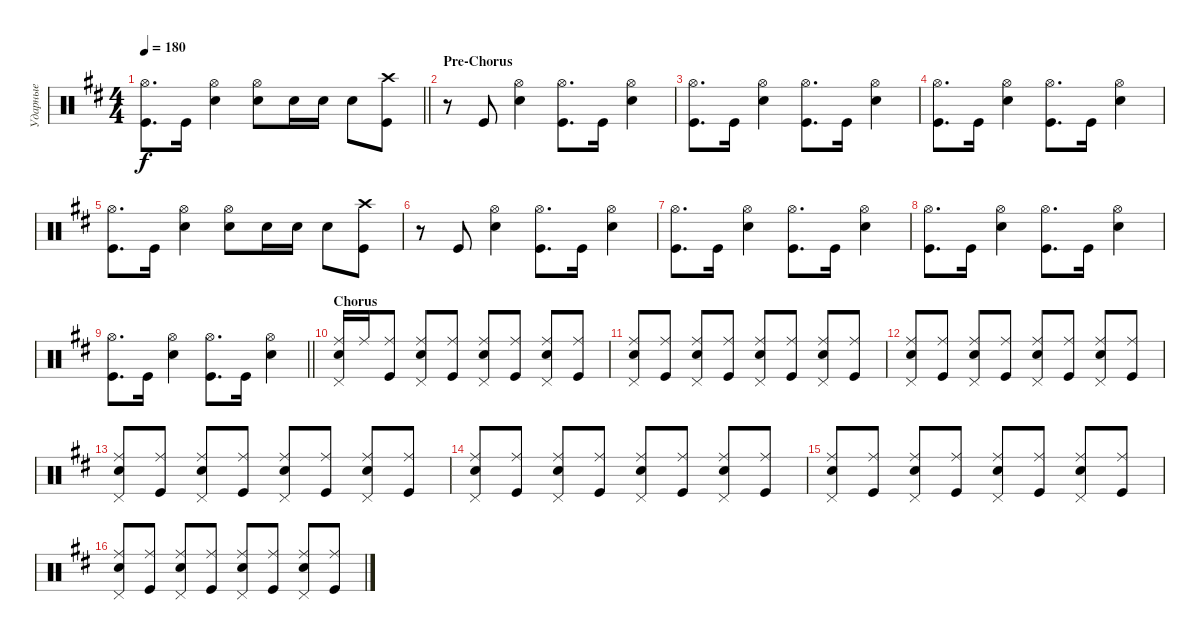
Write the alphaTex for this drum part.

\track ("Ударные" "Ударные") {instrument percussion}
\staff {score}
\articulation defaults
\ts (4 4)
\tempo 180
\clef neutral
\barLineRight lightlight
\ks bminor
("Hi-Hat (open)" "Kick (hit)").8{d dy f} "Kick (hit)".16 ("Hi-Hat (open)" "Snare (hit) 2").4 ("Hi-Hat (open)" "Snare (hit) 2").8{bd 480} "Snare (hit) 2".16 "Snare (hit) 2".16 "Snare (hit) 2".8 ("Kick (hit)" "Crash high (hit)").8 |
\section ("" "Pre-Chorus")
r.8 "Kick (hit)".8 ("Hi-Hat (open)" "Snare (hit) 2").4 ("Kick (hit)" "Hi-Hat (open)").8{d} "Kick (hit)".16 ("Snare (hit) 2" "Hi-Hat (open)").4 |
("Hi-Hat (open)" "Kick (hit)").8{d} "Kick (hit)".16 ("Hi-Hat (open)" "Snare (hit) 2").4 ("Kick (hit)" "Hi-Hat (open)").8{d} "Kick (hit)".16 ("Snare (hit) 2" "Hi-Hat (open)").4 |
("Hi-Hat (open)" "Kick (hit)").8{d} "Kick (hit)".16 ("Hi-Hat (open)" "Snare (hit) 2").4 ("Kick (hit)" "Hi-Hat (open)").8{d} "Kick (hit)".16 ("Snare (hit) 2" "Hi-Hat (open)").4 |
("Hi-Hat (open)" "Kick (hit)").8{d} "Kick (hit)".16 ("Hi-Hat (open)" "Snare (hit) 2").4 ("Hi-Hat (open)" "Snare (hit) 2").8{bd 480} "Snare (hit) 2".16 "Snare (hit) 2".16 "Snare (hit) 2".8 ("Kick (hit)" "Crash high (hit)").8 |
r.8 "Kick (hit)".8 ("Hi-Hat (open)" "Snare (hit) 2").4 ("Kick (hit)" "Hi-Hat (open)").8{d} "Kick (hit)".16 ("Snare (hit) 2" "Hi-Hat (open)").4 |
("Hi-Hat (open)" "Kick (hit)").8{d} "Kick (hit)".16 ("Hi-Hat (open)" "Snare (hit) 2").4 ("Kick (hit)" "Hi-Hat (open)").8{d} "Kick (hit)".16 ("Snare (hit) 2" "Hi-Hat (open)").4 |
("Hi-Hat (open)" "Kick (hit)").8{d} "Kick (hit)".16 ("Hi-Hat (open)" "Snare (hit) 2").4 ("Kick (hit)" "Hi-Hat (open)").8{d} "Kick (hit)".16 ("Snare (hit) 2" "Hi-Hat (open)").4 |
\barLineRight lightlight
("Hi-Hat (open)" "Kick (hit)").8{d} "Kick (hit)".16 ("Hi-Hat (open)" "Snare (hit) 2").4 ("Kick (hit)" "Hi-Hat (open)").8{d} "Kick (hit)".16 ("Snare (hit) 2" "Hi-Hat (open)").4 |
\section ("" "Chorus")
("Ride (middle)" "Snare (hit) 2" "Pedal Hi-Hat (hit)").16 "Ride (middle)".16 ("Kick (hit)" "Ride (middle)").8 ("Pedal Hi-Hat (hit)" "Snare (hit) 2" "Ride (middle)").8 ("Kick (hit)" "Ride (middle)").8 ("Pedal Hi-Hat (hit)" "Snare (hit) 2" "Ride (middle)").8 ("Kick (hit)" "Ride (middle)").8 ("Pedal Hi-Hat (hit)" "Snare (hit) 2" "Ride (middle)").8 ("Kick (hit)" "Ride (middle)").8 |
("Ride (middle)" "Snare (hit) 2" "Pedal Hi-Hat (hit)").8 ("Kick (hit)" "Ride (middle)").8 ("Pedal Hi-Hat (hit)" "Snare (hit) 2" "Ride (middle)").8 ("Kick (hit)" "Ride (middle)").8 ("Pedal Hi-Hat (hit)" "Snare (hit) 2" "Ride (middle)").8 ("Kick (hit)" "Ride (middle)").8 ("Pedal Hi-Hat (hit)" "Snare (hit) 2" "Ride (middle)").8 ("Kick (hit)" "Ride (middle)").8 |
("Ride (middle)" "Snare (hit) 2" "Pedal Hi-Hat (hit)").8 ("Kick (hit)" "Ride (middle)").8 ("Pedal Hi-Hat (hit)" "Snare (hit) 2" "Ride (middle)").8 ("Kick (hit)" "Ride (middle)").8 ("Pedal Hi-Hat (hit)" "Snare (hit) 2" "Ride (middle)").8 ("Kick (hit)" "Ride (middle)").8 ("Pedal Hi-Hat (hit)" "Snare (hit) 2" "Ride (middle)").8 ("Kick (hit)" "Ride (middle)").8 |
("Ride (middle)" "Snare (hit) 2" "Pedal Hi-Hat (hit)").8 ("Kick (hit)" "Ride (middle)").8 ("Pedal Hi-Hat (hit)" "Snare (hit) 2" "Ride (middle)").8 ("Kick (hit)" "Ride (middle)").8 ("Pedal Hi-Hat (hit)" "Snare (hit) 2" "Ride (middle)").8 ("Kick (hit)" "Ride (middle)").8 ("Pedal Hi-Hat (hit)" "Snare (hit) 2" "Ride (middle)").8 ("Kick (hit)" "Ride (middle)").8 |
("Ride (middle)" "Snare (hit) 2" "Pedal Hi-Hat (hit)").8 ("Kick (hit)" "Ride (middle)").8 ("Pedal Hi-Hat (hit)" "Snare (hit) 2" "Ride (middle)").8 ("Kick (hit)" "Ride (middle)").8 ("Pedal Hi-Hat (hit)" "Snare (hit) 2" "Ride (middle)").8 ("Kick (hit)" "Ride (middle)").8 ("Pedal Hi-Hat (hit)" "Snare (hit) 2" "Ride (middle)").8 ("Kick (hit)" "Ride (middle)").8 |
("Ride (middle)" "Snare (hit) 2" "Pedal Hi-Hat (hit)").8 ("Kick (hit)" "Ride (middle)").8 ("Pedal Hi-Hat (hit)" "Snare (hit) 2" "Ride (middle)").8 ("Kick (hit)" "Ride (middle)").8 ("Pedal Hi-Hat (hit)" "Snare (hit) 2" "Ride (middle)").8 ("Kick (hit)" "Ride (middle)").8 ("Pedal Hi-Hat (hit)" "Snare (hit) 2" "Ride (middle)").8 ("Kick (hit)" "Ride (middle)").8 |
("Ride (middle)" "Snare (hit) 2" "Pedal Hi-Hat (hit)").8 ("Kick (hit)" "Ride (middle)").8 ("Pedal Hi-Hat (hit)" "Snare (hit) 2" "Ride (middle)").8 ("Kick (hit)" "Ride (middle)").8 ("Pedal Hi-Hat (hit)" "Snare (hit) 2" "Ride (middle)").8 ("Kick (hit)" "Ride (middle)").8 ("Pedal Hi-Hat (hit)" "Snare (hit) 2" "Ride (middle)").8 ("Kick (hit)" "Ride (middle)").8
